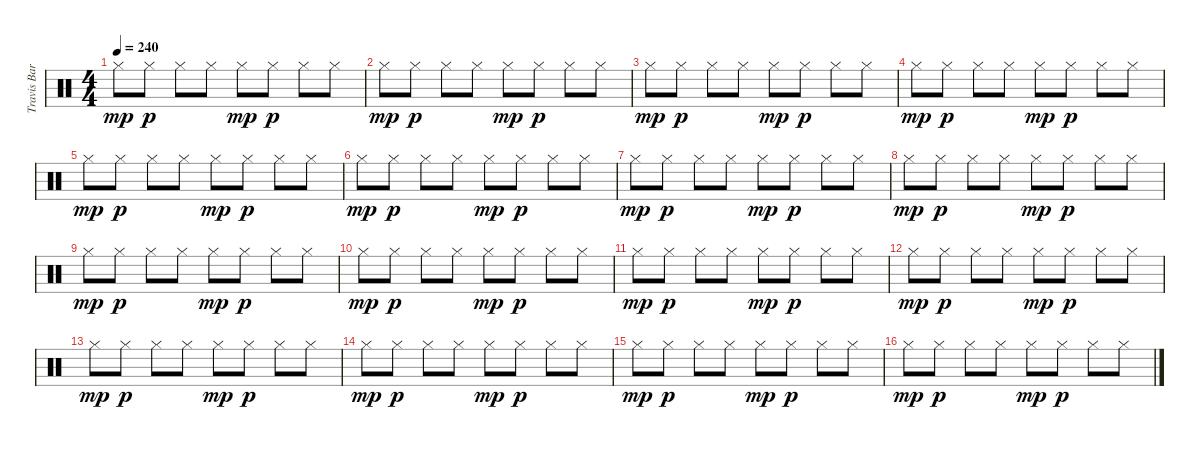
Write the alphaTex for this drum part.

\track ("Travis Barker - Drums 2" "Travis Bar") {instrument percussion}
\staff {score}
\articulation defaults
\ts (4 4)
\tempo 240
\clef neutral
\ks c "Hi-Hat (closed)".8{dy mp} "Hi-Hat (closed)".8{dy p} "Hi-Hat (closed)".8 "Hi-Hat (closed)".8 "Hi-Hat (closed)".8{dy mp} "Hi-Hat (closed)".8{dy p} "Hi-Hat (closed)".8 "Hi-Hat (closed)".8
|
"Hi-Hat (closed)".8{dy mp} "Hi-Hat (closed)".8{dy p} "Hi-Hat (closed)".8 "Hi-Hat (closed)".8 "Hi-Hat (closed)".8{dy mp} "Hi-Hat (closed)".8{dy p} "Hi-Hat (closed)".8 "Hi-Hat (closed)".8 |
"Hi-Hat (closed)".8{dy mp} "Hi-Hat (closed)".8{dy p} "Hi-Hat (closed)".8 "Hi-Hat (closed)".8 "Hi-Hat (closed)".8{dy mp} "Hi-Hat (closed)".8{dy p} "Hi-Hat (closed)".8 "Hi-Hat (closed)".8 |
"Hi-Hat (closed)".8{dy mp} "Hi-Hat (closed)".8{dy p} "Hi-Hat (closed)".8 "Hi-Hat (closed)".8 "Hi-Hat (closed)".8{dy mp} "Hi-Hat (closed)".8{dy p} "Hi-Hat (closed)".8 "Hi-Hat (closed)".8 |
"Hi-Hat (closed)".8{dy mp} "Hi-Hat (closed)".8{dy p} "Hi-Hat (closed)".8 "Hi-Hat (closed)".8 "Hi-Hat (closed)".8{dy mp} "Hi-Hat (closed)".8{dy p} "Hi-Hat (closed)".8 "Hi-Hat (closed)".8 |
"Hi-Hat (closed)".8{dy mp} "Hi-Hat (closed)".8{dy p} "Hi-Hat (closed)".8 "Hi-Hat (closed)".8 "Hi-Hat (closed)".8{dy mp} "Hi-Hat (closed)".8{dy p} "Hi-Hat (closed)".8 "Hi-Hat (closed)".8 |
"Hi-Hat (closed)".8{dy mp} "Hi-Hat (closed)".8{dy p} "Hi-Hat (closed)".8 "Hi-Hat (closed)".8 "Hi-Hat (closed)".8{dy mp} "Hi-Hat (closed)".8{dy p} "Hi-Hat (closed)".8 "Hi-Hat (closed)".8 |
"Hi-Hat (closed)".8{dy mp} "Hi-Hat (closed)".8{dy p} "Hi-Hat (closed)".8 "Hi-Hat (closed)".8 "Hi-Hat (closed)".8{dy mp} "Hi-Hat (closed)".8{dy p} "Hi-Hat (closed)".8 "Hi-Hat (closed)".8 |
"Hi-Hat (closed)".8{dy mp} "Hi-Hat (closed)".8{dy p} "Hi-Hat (closed)".8 "Hi-Hat (closed)".8 "Hi-Hat (closed)".8{dy mp} "Hi-Hat (closed)".8{dy p} "Hi-Hat (closed)".8 "Hi-Hat (closed)".8 |
"Hi-Hat (closed)".8{dy mp} "Hi-Hat (closed)".8{dy p} "Hi-Hat (closed)".8 "Hi-Hat (closed)".8 "Hi-Hat (closed)".8{dy mp} "Hi-Hat (closed)".8{dy p} "Hi-Hat (closed)".8 "Hi-Hat (closed)".8 |
"Hi-Hat (closed)".8{dy mp} "Hi-Hat (closed)".8{dy p} "Hi-Hat (closed)".8 "Hi-Hat (closed)".8 "Hi-Hat (closed)".8{dy mp} "Hi-Hat (closed)".8{dy p} "Hi-Hat (closed)".8 "Hi-Hat (closed)".8 |
"Hi-Hat (closed)".8{dy mp} "Hi-Hat (closed)".8{dy p} "Hi-Hat (closed)".8 "Hi-Hat (closed)".8 "Hi-Hat (closed)".8{dy mp} "Hi-Hat (closed)".8{dy p} "Hi-Hat (closed)".8 "Hi-Hat (closed)".8 |
"Hi-Hat (closed)".8{dy mp} "Hi-Hat (closed)".8{dy p} "Hi-Hat (closed)".8 "Hi-Hat (closed)".8 "Hi-Hat (closed)".8{dy mp} "Hi-Hat (closed)".8{dy p} "Hi-Hat (closed)".8 "Hi-Hat (closed)".8 |
"Hi-Hat (closed)".8{dy mp} "Hi-Hat (closed)".8{dy p} "Hi-Hat (closed)".8 "Hi-Hat (closed)".8 "Hi-Hat (closed)".8{dy mp} "Hi-Hat (closed)".8{dy p} "Hi-Hat (closed)".8 "Hi-Hat (closed)".8 |
"Hi-Hat (closed)".8{dy mp} "Hi-Hat (closed)".8{dy p} "Hi-Hat (closed)".8 "Hi-Hat (closed)".8 "Hi-Hat (closed)".8{dy mp} "Hi-Hat (closed)".8{dy p} "Hi-Hat (closed)".8 "Hi-Hat (closed)".8 |
"Hi-Hat (closed)".8{dy mp} "Hi-Hat (closed)".8{dy p} "Hi-Hat (closed)".8 "Hi-Hat (closed)".8 "Hi-Hat (closed)".8{dy mp} "Hi-Hat (closed)".8{dy p} "Hi-Hat (closed)".8 "Hi-Hat (closed)".8
